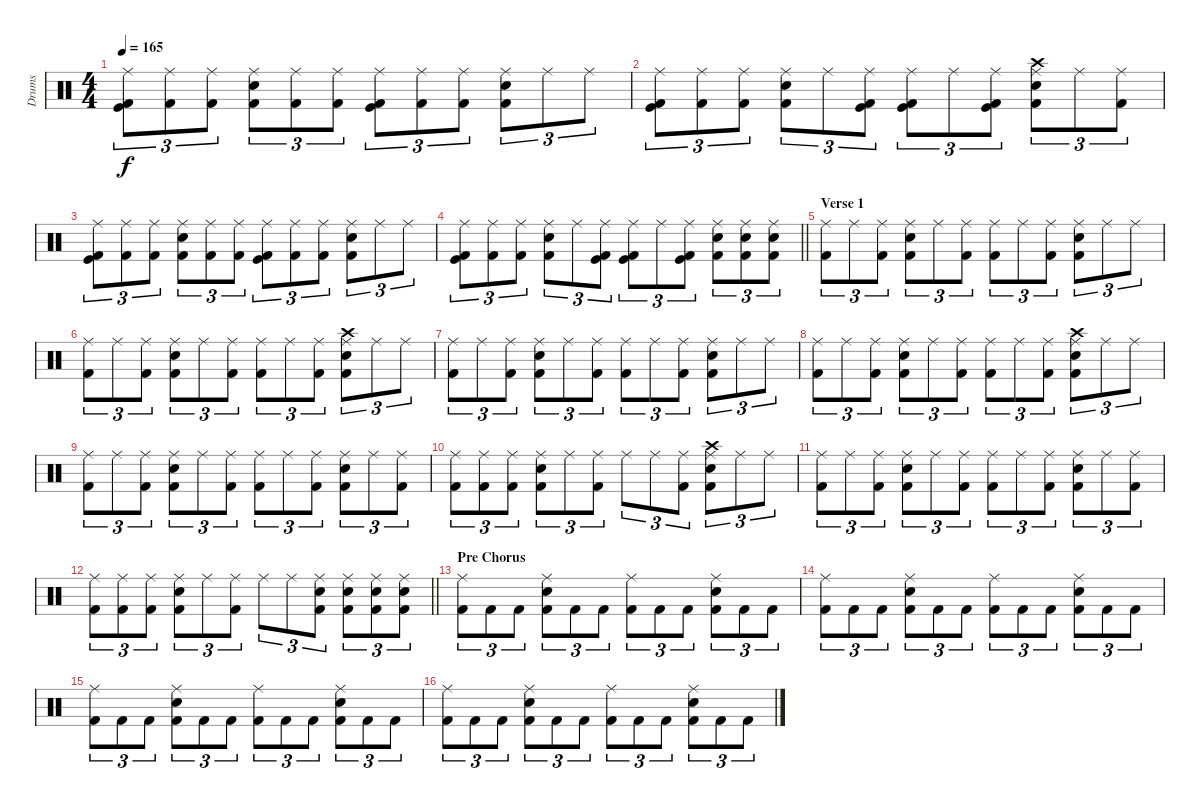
\track ("Drums" "Drums") {instrument percussion}
\staff {score}
\articulation defaults
\ts (4 4)
\tempo 165
\clef neutral
\ks c
("Ride (middle)" "Kick (hit)" "Kick (hit) 2").8{tu (3 2) dy f} ("Ride (middle)" "Kick (hit) 2").8{tu (3 2)} ("Ride (middle)" "Kick (hit) 2").8{tu (3 2)} ("Ride (middle)" "Snare (hit) 2" "Kick (hit) 2").8{tu (3 2)} ("Ride (middle)" "Kick (hit) 2").8{tu (3 2)} ("Ride (middle)" "Kick (hit) 2").8{tu (3 2)} ("Ride (middle)" "Kick (hit)" "Kick (hit) 2").8{tu (3 2)} ("Ride (middle)" "Kick (hit) 2").8{tu (3 2)} ("Ride (middle)" "Kick (hit) 2").8{tu (3 2)} ("Ride (middle)" "Snare (hit) 2" "Kick (hit) 2").8{tu (3 2)} "Ride (middle)".8{tu (3 2)} "Ride (middle)".8{tu (3 2)} |
("Ride (middle)" "Kick (hit)" "Kick (hit) 2").8{tu (3 2)} ("Ride (middle)" "Kick (hit) 2").8{tu (3 2)} ("Ride (middle)" "Kick (hit) 2").8{tu (3 2)} ("Ride (middle)" "Snare (hit) 2" "Kick (hit) 2").8{tu (3 2)} "Ride (middle)".8{tu (3 2)} ("Ride (middle)" "Kick (hit)" "Kick (hit) 2").8{tu (3 2)} ("Ride (middle)" "Kick (hit)" "Kick (hit) 2").8{tu (3 2)} "Ride (middle)".8{tu (3 2)} ("Ride (middle)" "Kick (hit)" "Kick (hit) 2").8{tu (3 2)} ("Ride (middle)" "Snare (hit) 2" "Kick (hit) 2" "Crash high (hit)").8{tu (3 2)} "Ride (middle)".8{tu (3 2)} ("Ride (middle)" "Kick (hit) 2").8{tu (3 2)} |
("Ride (middle)" "Kick (hit)" "Kick (hit) 2").8{tu (3 2)} ("Ride (middle)" "Kick (hit) 2").8{tu (3 2)} ("Ride (middle)" "Kick (hit) 2").8{tu (3 2)} ("Ride (middle)" "Snare (hit) 2" "Kick (hit) 2").8{tu (3 2)} ("Ride (middle)" "Kick (hit) 2").8{tu (3 2)} ("Ride (middle)" "Kick (hit) 2").8{tu (3 2)} ("Ride (middle)" "Kick (hit)" "Kick (hit) 2").8{tu (3 2)} ("Ride (middle)" "Kick (hit) 2").8{tu (3 2)} ("Ride (middle)" "Kick (hit) 2").8{tu (3 2)} ("Ride (middle)" "Snare (hit) 2" "Kick (hit) 2").8{tu (3 2)} "Ride (middle)".8{tu (3 2)} "Ride (middle)".8{tu (3 2)} |
\barLineRight lightlight
("Ride (middle)" "Kick (hit)" "Kick (hit) 2").8{tu (3 2)} ("Ride (middle)" "Kick (hit) 2").8{tu (3 2)} ("Ride (middle)" "Kick (hit) 2").8{tu (3 2)} ("Ride (middle)" "Snare (hit) 2" "Kick (hit) 2").8{tu (3 2)} "Ride (middle)".8{tu (3 2)} ("Ride (middle)" "Kick (hit)" "Kick (hit) 2").8{tu (3 2)} ("Ride (middle)" "Kick (hit)" "Kick (hit) 2").8{tu (3 2)} "Ride (middle)".8{tu (3 2)} ("Ride (middle)" "Kick (hit)" "Kick (hit) 2").8{tu (3 2)} ("Ride (middle)" "Electric Snare (hit)" "Kick (hit) 2").8{tu (3 2)} ("Ride (middle)" "Electric Snare (hit)" "Kick (hit) 2").8{tu (3 2)} ("Ride (middle)" "Electric Snare (hit)" "Kick (hit) 2").8{tu (3 2)} |
\section ("" "Verse 1")
("Ride (middle)" "Kick (hit) 2").8{tu (3 2)} "Ride (middle)".8{tu (3 2)} ("Ride (middle)" "Kick (hit) 2").8{tu (3 2)} ("Ride (middle)" "Snare (hit) 2" "Kick (hit) 2").8{tu (3 2)} "Ride (middle)".8{tu (3 2)} ("Ride (middle)" "Kick (hit) 2").8{tu (3 2)} ("Ride (middle)" "Kick (hit) 2").8{tu (3 2)} "Ride (middle)".8{tu (3 2)} ("Ride (middle)" "Kick (hit) 2").8{tu (3 2)} ("Ride (middle)" "Snare (hit) 2" "Kick (hit) 2").8{tu (3 2)} "Ride (middle)".8{tu (3 2)} "Ride (middle)".8{tu (3 2)} |
("Ride (middle)" "Kick (hit) 2").8{tu (3 2)} "Ride (middle)".8{tu (3 2)} ("Ride (middle)" "Kick (hit) 2").8{tu (3 2)} ("Ride (middle)" "Snare (hit) 2" "Kick (hit) 2").8{tu (3 2)} "Ride (middle)".8{tu (3 2)} ("Ride (middle)" "Kick (hit) 2").8{tu (3 2)} ("Ride (middle)" "Kick (hit) 2").8{tu (3 2)} "Ride (middle)".8{tu (3 2)} ("Ride (middle)" "Kick (hit) 2").8{tu (3 2)} ("Ride (middle)" "Snare (hit) 2" "Kick (hit) 2" "Crash high (hit)").8{tu (3 2)} "Ride (middle)".8{tu (3 2)} "Ride (middle)".8{tu (3 2)} |
("Ride (middle)" "Kick (hit) 2").8{tu (3 2)} "Ride (middle)".8{tu (3 2)} ("Ride (middle)" "Kick (hit) 2").8{tu (3 2)} ("Ride (middle)" "Snare (hit) 2" "Kick (hit) 2").8{tu (3 2)} "Ride (middle)".8{tu (3 2)} ("Ride (middle)" "Kick (hit) 2").8{tu (3 2)} ("Ride (middle)" "Kick (hit) 2").8{tu (3 2)} "Ride (middle)".8{tu (3 2)} ("Ride (middle)" "Kick (hit) 2").8{tu (3 2)} ("Ride (middle)" "Snare (hit) 2" "Kick (hit) 2").8{tu (3 2)} "Ride (middle)".8{tu (3 2)} "Ride (middle)".8{tu (3 2)} |
("Ride (middle)" "Kick (hit) 2").8{tu (3 2)} "Ride (middle)".8{tu (3 2)} ("Ride (middle)" "Kick (hit) 2").8{tu (3 2)} ("Ride (middle)" "Snare (hit) 2" "Kick (hit) 2").8{tu (3 2)} "Ride (middle)".8{tu (3 2)} ("Ride (middle)" "Kick (hit) 2").8{tu (3 2)} ("Ride (middle)" "Kick (hit) 2").8{tu (3 2)} "Ride (middle)".8{tu (3 2)} ("Ride (middle)" "Kick (hit) 2").8{tu (3 2)} ("Ride (middle)" "Snare (hit) 2" "Kick (hit) 2" "Crash high (hit)").8{tu (3 2)} "Ride (middle)".8{tu (3 2)} "Ride (middle)".8{tu (3 2)} |
("Ride (middle)" "Kick (hit) 2").8{tu (3 2)} "Ride (middle)".8{tu (3 2)} ("Ride (middle)" "Kick (hit) 2").8{tu (3 2)} ("Ride (middle)" "Snare (hit) 2" "Kick (hit) 2").8{tu (3 2)} "Ride (middle)".8{tu (3 2)} ("Ride (middle)" "Kick (hit) 2").8{tu (3 2)} ("Ride (middle)" "Kick (hit) 2").8{tu (3 2)} "Ride (middle)".8{tu (3 2)} ("Ride (middle)" "Kick (hit) 2").8{tu (3 2)} ("Ride (middle)" "Snare (hit) 2" "Kick (hit) 2").8{tu (3 2)} "Ride (middle)".8{tu (3 2)} ("Ride (middle)" "Kick (hit) 2").8{tu (3 2)} |
("Ride (middle)" "Kick (hit) 2").8{tu (3 2)} ("Ride (middle)" "Kick (hit) 2").8{tu (3 2)} ("Ride (middle)" "Kick (hit) 2").8{tu (3 2)} ("Ride (middle)" "Snare (hit) 2" "Kick (hit) 2").8{tu (3 2)} "Ride (middle)".8{tu (3 2)} ("Ride (middle)" "Kick (hit) 2").8{tu (3 2)} "Ride (middle)".8{tu (3 2)} "Ride (middle)".8{tu (3 2)} ("Ride (middle)" "Kick (hit) 2").8{tu (3 2)} ("Ride (middle)" "Snare (hit) 2" "Kick (hit) 2" "Crash high (hit)").8{tu (3 2)} "Ride (middle)".8{tu (3 2)} "Ride (middle)".8{tu (3 2)} |
("Ride (middle)" "Kick (hit) 2").8{tu (3 2)} "Ride (middle)".8{tu (3 2)} ("Ride (middle)" "Kick (hit) 2").8{tu (3 2)} ("Ride (middle)" "Snare (hit) 2" "Kick (hit) 2").8{tu (3 2)} "Ride (middle)".8{tu (3 2)} ("Ride (middle)" "Kick (hit) 2").8{tu (3 2)} ("Ride (middle)" "Kick (hit) 2").8{tu (3 2)} "Ride (middle)".8{tu (3 2)} ("Ride (middle)" "Kick (hit) 2").8{tu (3 2)} ("Ride (middle)" "Snare (hit) 2" "Kick (hit) 2").8{tu (3 2)} "Ride (middle)".8{tu (3 2)} ("Ride (middle)" "Kick (hit) 2").8{tu (3 2)} |
\barLineRight lightlight
("Ride (middle)" "Kick (hit) 2").8{tu (3 2)} ("Ride (middle)" "Kick (hit) 2").8{tu (3 2)} ("Ride (middle)" "Kick (hit) 2").8{tu (3 2)} ("Ride (middle)" "Snare (hit) 2" "Kick (hit) 2").8{tu (3 2)} "Ride (middle)".8{tu (3 2)} ("Ride (middle)" "Kick (hit) 2").8{tu (3 2)} "Ride (middle)".8{tu (3 2)} "Ride (middle)".8{tu (3 2)} ("Ride (middle)" "Snare (hit) 2" "Kick (hit) 2").8{tu (3 2)} ("Ride (middle)" "Snare (hit) 2" "Kick (hit) 2").8{tu (3 2)} ("Ride (middle)" "Snare (hit) 2" "Kick (hit) 2").8{tu (3 2)} ("Ride (middle)" "Snare (hit) 2" "Kick (hit) 2").8{tu (3 2)} |
\section ("" "Pre Chorus")
("Ride (middle)" "Kick (hit) 2").8{tu (3 2)} "Kick (hit) 2".8{tu (3 2)} "Kick (hit) 2".8{tu (3 2)} ("Ride (middle)" "Snare (hit) 2" "Kick (hit) 2").8{tu (3 2)} "Kick (hit) 2".8{tu (3 2)} "Kick (hit) 2".8{tu (3 2)} ("Ride (middle)" "Kick (hit) 2").8{tu (3 2)} "Kick (hit) 2".8{tu (3 2)} "Kick (hit) 2".8{tu (3 2)} ("Ride (middle)" "Snare (hit) 2" "Kick (hit) 2").8{tu (3 2)} "Kick (hit) 2".8{tu (3 2)} "Kick (hit) 2".8{tu (3 2)} |
("Ride (middle)" "Kick (hit) 2").8{tu (3 2)} "Kick (hit) 2".8{tu (3 2)} "Kick (hit) 2".8{tu (3 2)} ("Ride (middle)" "Snare (hit) 2" "Kick (hit) 2").8{tu (3 2)} "Kick (hit) 2".8{tu (3 2)} "Kick (hit) 2".8{tu (3 2)} ("Ride (middle)" "Kick (hit) 2").8{tu (3 2)} "Kick (hit) 2".8{tu (3 2)} "Kick (hit) 2".8{tu (3 2)} ("Ride (middle)" "Snare (hit) 2" "Kick (hit) 2").8{tu (3 2)} "Kick (hit) 2".8{tu (3 2)} "Kick (hit) 2".8{tu (3 2)} |
("Ride (middle)" "Kick (hit) 2").8{tu (3 2)} "Kick (hit) 2".8{tu (3 2)} "Kick (hit) 2".8{tu (3 2)} ("Ride (middle)" "Snare (hit) 2" "Kick (hit) 2").8{tu (3 2)} "Kick (hit) 2".8{tu (3 2)} "Kick (hit) 2".8{tu (3 2)} ("Ride (middle)" "Kick (hit) 2").8{tu (3 2)} "Kick (hit) 2".8{tu (3 2)} "Kick (hit) 2".8{tu (3 2)} ("Ride (middle)" "Snare (hit) 2" "Kick (hit) 2").8{tu (3 2)} "Kick (hit) 2".8{tu (3 2)} "Kick (hit) 2".8{tu (3 2)} |
("Ride (middle)" "Kick (hit) 2").8{tu (3 2)} "Kick (hit) 2".8{tu (3 2)} "Kick (hit) 2".8{tu (3 2)} ("Ride (middle)" "Snare (hit) 2" "Kick (hit) 2").8{tu (3 2)} "Kick (hit) 2".8{tu (3 2)} "Kick (hit) 2".8{tu (3 2)} ("Ride (middle)" "Kick (hit) 2").8{tu (3 2)} "Kick (hit) 2".8{tu (3 2)} "Kick (hit) 2".8{tu (3 2)} ("Ride (middle)" "Snare (hit) 2" "Kick (hit) 2").8{tu (3 2)} "Kick (hit) 2".8{tu (3 2)} "Kick (hit) 2".8{tu (3 2)}
